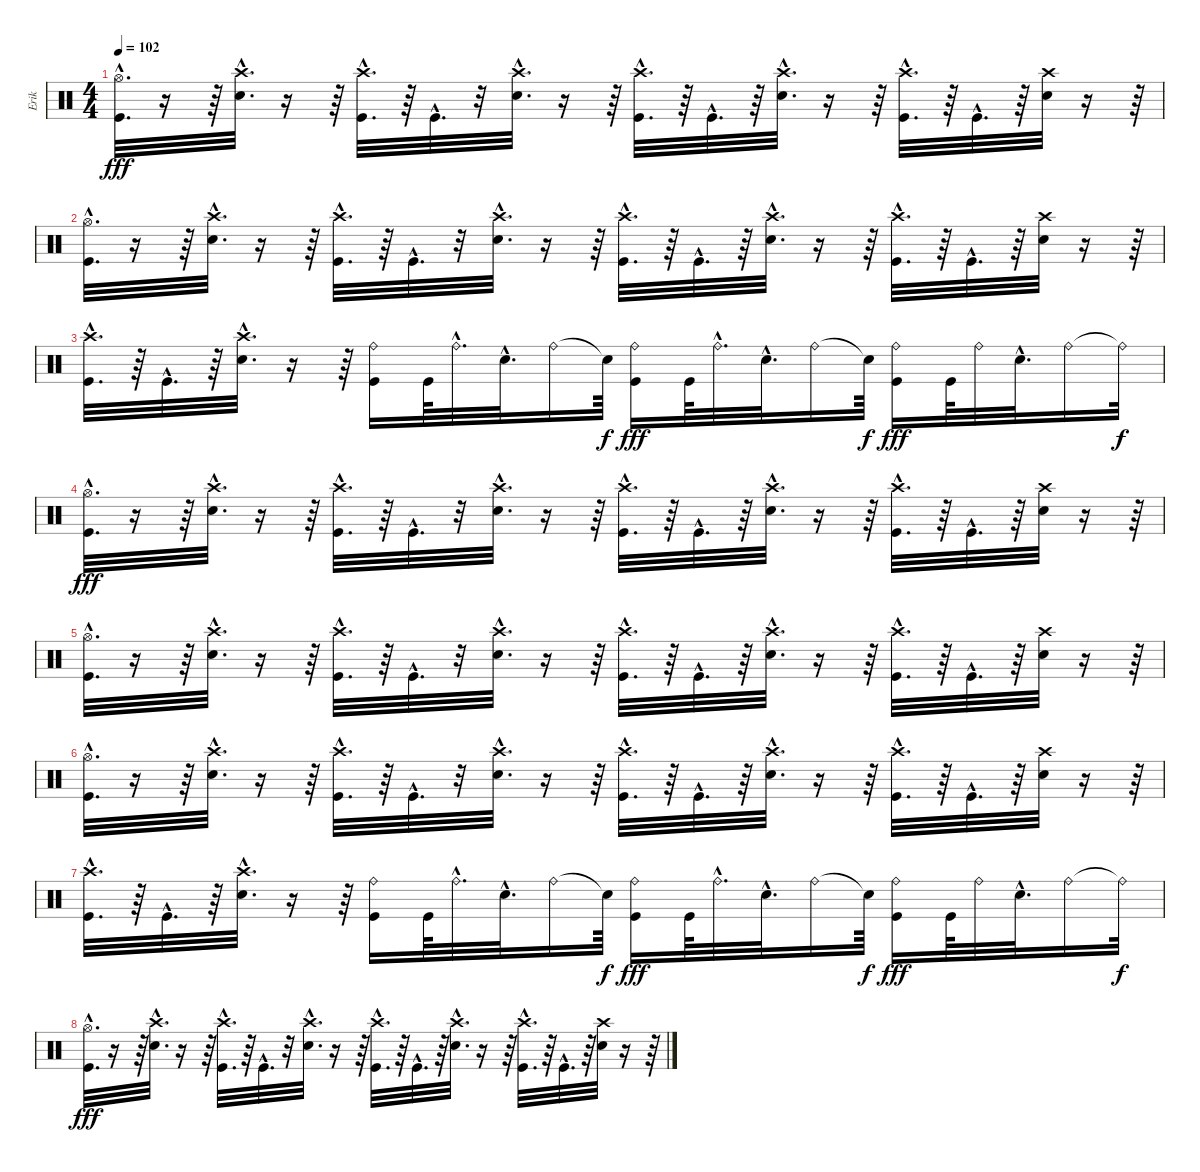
\track ("Erik" "Erik") {instrument percussion}
\staff {score}
\articulation defaults
\ts (4 4)
\tempo 102
\clef neutral
\ks c
("Hi-Hat (open)"{hac} "Kick (hit)"{hac}).32{d dy fff} r.16 r.64 ("Crash high (hit)"{hac} "Electric Snare (hit)"{hac}).32{d} r.16 r.64 ("Kick (hit)"{hac} "Crash high (hit)"{hac}).32{d} r.64 "Kick (hit)"{hac}.32{d} r.32 ("Crash high (hit)"{hac} "Electric Snare (hit)"{hac}).32{d} r.16 r.64 ("Crash high (hit)"{hac} "Kick (hit)"{hac}).32{d} r.64 "Kick (hit)"{hac}.32{d} r.64 ("Crash high (hit)"{hac} "Electric Snare (hit)"{hac}).32{d} r.16 r.64 ("Kick (hit)"{hac} "Crash high (hit)"{hac}).32{d} r.64 "Kick (hit)"{hac}.32{d} r.64 ("Electric Snare (hit)" "Crash high (hit)").32 r.16 r.64 |
("Hi-Hat (open)"{hac} "Kick (hit)"{hac}).32{d} r.16 r.64 ("Crash high (hit)"{hac} "Electric Snare (hit)"{hac}).32{d} r.16 r.64 ("Kick (hit)"{hac} "Crash high (hit)"{hac}).32{d} r.64 "Kick (hit)"{hac}.32{d} r.32 ("Crash high (hit)"{hac} "Electric Snare (hit)"{hac}).32{d} r.16 r.64 ("Crash high (hit)"{hac} "Kick (hit)"{hac}).32{d} r.64 "Kick (hit)"{hac}.32{d} r.64 ("Crash high (hit)"{hac} "Electric Snare (hit)"{hac}).32{d} r.16 r.64 ("Kick (hit)"{hac} "Crash high (hit)"{hac}).32{d} r.64 "Kick (hit)"{hac}.32{d} r.64 ("Electric Snare (hit)" "Crash high (hit)").32 r.16 r.64 |
("Crash high (hit)"{hac} "Kick (hit)"{hac}).32{d} r.64 "Kick (hit)"{hac}.32{d} r.64 ("Crash high (hit)"{hac} "Electric Snare (hit)"{hac}).32{d} r.16 r.64 ("Kick (hit)" "Ride (bell)").16 "Kick (hit)".64 "Ride (bell)"{hac}.32{d} "Electric Snare (hit)"{hac}.32{d} "Ride (bell)".16 "Snare (hit)"{t}.64{dy f} ("Ride (bell)" "Kick (hit)").16{dy fff} "Kick (hit)".64 "Ride (bell)"{hac}.32{d} "Electric Snare (hit)"{hac}.32{d} "Ride (bell)".16 "Snare (hit)"{t}.64{dy f} ("Ride (bell)" "Kick (hit)").16{dy fff} "Kick (hit)".64 "Ride (bell)".32 "Electric Snare (hit)"{hac}.32{d} "Ride (bell)".16 "Ride (bell)"{t}.32{dy f} |
("Hi-Hat (open)"{hac} "Kick (hit)"{hac}).32{d dy fff} r.16 r.64 ("Crash high (hit)"{hac} "Electric Snare (hit)"{hac}).32{d} r.16 r.64 ("Kick (hit)"{hac} "Crash high (hit)"{hac}).32{d} r.64 "Kick (hit)"{hac}.32{d} r.32 ("Crash high (hit)"{hac} "Electric Snare (hit)"{hac}).32{d} r.16 r.64 ("Crash high (hit)"{hac} "Kick (hit)"{hac}).32{d} r.64 "Kick (hit)"{hac}.32{d} r.64 ("Crash high (hit)"{hac} "Electric Snare (hit)"{hac}).32{d} r.16 r.64 ("Kick (hit)"{hac} "Crash high (hit)"{hac}).32{d} r.64 "Kick (hit)"{hac}.32{d} r.64 ("Electric Snare (hit)" "Crash high (hit)").32 r.16 r.64 |
("Hi-Hat (open)"{hac} "Kick (hit)"{hac}).32{d} r.16 r.64 ("Crash high (hit)"{hac} "Electric Snare (hit)"{hac}).32{d} r.16 r.64 ("Kick (hit)"{hac} "Crash high (hit)"{hac}).32{d} r.64 "Kick (hit)"{hac}.32{d} r.32 ("Crash high (hit)"{hac} "Electric Snare (hit)"{hac}).32{d} r.16 r.64 ("Crash high (hit)"{hac} "Kick (hit)"{hac}).32{d} r.64 "Kick (hit)"{hac}.32{d} r.64 ("Crash high (hit)"{hac} "Electric Snare (hit)"{hac}).32{d} r.16 r.64 ("Kick (hit)"{hac} "Crash high (hit)"{hac}).32{d} r.64 "Kick (hit)"{hac}.32{d} r.64 ("Electric Snare (hit)" "Crash high (hit)").32 r.16 r.64 |
("Hi-Hat (open)"{hac} "Kick (hit)"{hac}).32{d} r.16 r.64 ("Crash high (hit)"{hac} "Electric Snare (hit)"{hac}).32{d} r.16 r.64 ("Kick (hit)"{hac} "Crash high (hit)"{hac}).32{d} r.64 "Kick (hit)"{hac}.32{d} r.32 ("Crash high (hit)"{hac} "Electric Snare (hit)"{hac}).32{d} r.16 r.64 ("Crash high (hit)"{hac} "Kick (hit)"{hac}).32{d} r.64 "Kick (hit)"{hac}.32{d} r.64 ("Crash high (hit)"{hac} "Electric Snare (hit)"{hac}).32{d} r.16 r.64 ("Kick (hit)"{hac} "Crash high (hit)"{hac}).32{d} r.64 "Kick (hit)"{hac}.32{d} r.64 ("Electric Snare (hit)" "Crash high (hit)").32 r.16 r.64 |
("Crash high (hit)"{hac} "Kick (hit)"{hac}).32{d} r.64 "Kick (hit)"{hac}.32{d} r.64 ("Crash high (hit)"{hac} "Electric Snare (hit)"{hac}).32{d} r.16 r.64 ("Kick (hit)" "Ride (bell)").16 "Kick (hit)".64 "Ride (bell)"{hac}.32{d} "Electric Snare (hit)"{hac}.32{d} "Ride (bell)".16 "Snare (hit)"{t}.64{dy f} ("Ride (bell)" "Kick (hit)").16{dy fff} "Kick (hit)".64 "Ride (bell)"{hac}.32{d} "Electric Snare (hit)"{hac}.32{d} "Ride (bell)".16 "Snare (hit)"{t}.64{dy f} ("Ride (bell)" "Kick (hit)").16{dy fff} "Kick (hit)".64 "Ride (bell)".32 "Electric Snare (hit)"{hac}.32{d} "Ride (bell)".16 "Ride (bell)"{t}.32{dy f} |
("Hi-Hat (open)"{hac} "Kick (hit)"{hac}).32{d dy fff} r.16 r.64 ("Crash high (hit)"{hac} "Electric Snare (hit)"{hac}).32{d} r.16 r.64 ("Kick (hit)"{hac} "Crash high (hit)"{hac}).32{d} r.64 "Kick (hit)"{hac}.32{d} r.32 ("Crash high (hit)"{hac} "Electric Snare (hit)"{hac}).32{d} r.16 r.64 ("Crash high (hit)"{hac} "Kick (hit)"{hac}).32{d} r.64 "Kick (hit)"{hac}.32{d} r.64 ("Crash high (hit)"{hac} "Electric Snare (hit)"{hac}).32{d} r.16 r.64 ("Kick (hit)"{hac} "Crash high (hit)"{hac}).32{d} r.64 "Kick (hit)"{hac}.32{d} r.64 ("Electric Snare (hit)" "Crash high (hit)").32 r.16 r.64
